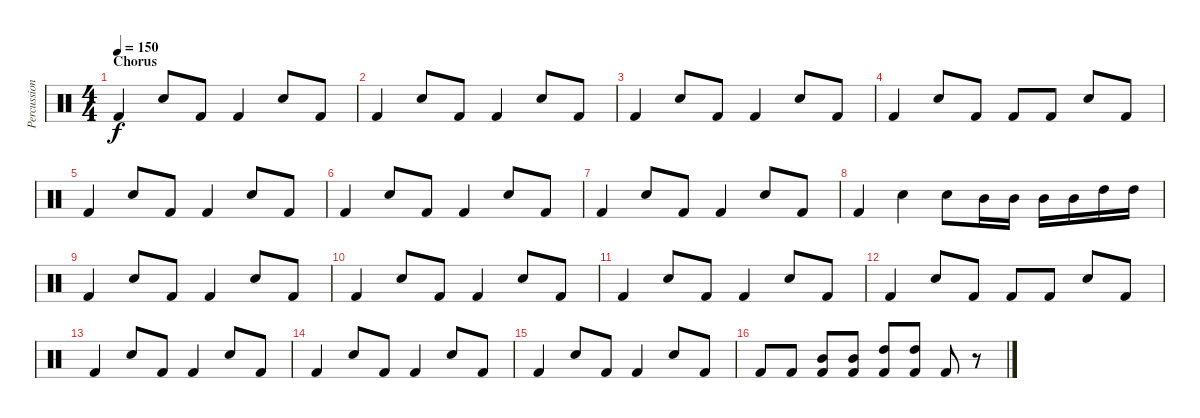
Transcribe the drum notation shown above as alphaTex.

\track ("Percussion" "Percussion") {instrument percussion}
\staff {score}
\articulation defaults
\ts (4 4)
\section ("" "Chorus")
\tempo 150
\clef neutral
\ks c "Kick (hit) 2".4{dy f} "Snare (hit) 2".8 "Kick (hit) 2".8 "Kick (hit) 2".4 "Snare (hit) 2".8 "Kick (hit) 2".8
|
"Kick (hit) 2".4 "Snare (hit) 2".8 "Kick (hit) 2".8 "Kick (hit) 2".4 "Snare (hit) 2".8 "Kick (hit) 2".8 |
"Kick (hit) 2".4 "Snare (hit) 2".8 "Kick (hit) 2".8 "Kick (hit) 2".4 "Snare (hit) 2".8 "Kick (hit) 2".8 |
"Kick (hit) 2".4 "Snare (hit) 2".8 "Kick (hit) 2".8 "Kick (hit) 2".8 "Kick (hit) 2".8 "Snare (hit) 2".8 "Kick (hit) 2".8 |
"Kick (hit) 2".4 "Snare (hit) 2".8 "Kick (hit) 2".8 "Kick (hit) 2".4 "Snare (hit) 2".8 "Kick (hit) 2".8 |
"Kick (hit) 2".4 "Snare (hit) 2".8 "Kick (hit) 2".8 "Kick (hit) 2".4 "Snare (hit) 2".8 "Kick (hit) 2".8 |
"Kick (hit) 2".4 "Snare (hit) 2".8 "Kick (hit) 2".8 "Kick (hit) 2".4 "Snare (hit) 2".8 "Kick (hit) 2".8 |
"Kick (hit) 2".4 "Snare (hit) 2".4 "Snare (hit) 2".8 "Mid Tom (hit)".16 "Mid Tom (hit)".16 "Mid Tom (hit)".16 "Mid Tom (hit)".16 "High Tom (hit)".16 "High Tom (hit)".16 |
"Kick (hit) 2".4 "Snare (hit) 2".8 "Kick (hit) 2".8 "Kick (hit) 2".4 "Snare (hit) 2".8 "Kick (hit) 2".8 |
"Kick (hit) 2".4 "Snare (hit) 2".8 "Kick (hit) 2".8 "Kick (hit) 2".4 "Snare (hit) 2".8 "Kick (hit) 2".8 |
"Kick (hit) 2".4 "Snare (hit) 2".8 "Kick (hit) 2".8 "Kick (hit) 2".4 "Snare (hit) 2".8 "Kick (hit) 2".8 |
"Kick (hit) 2".4 "Snare (hit) 2".8 "Kick (hit) 2".8 "Kick (hit) 2".8 "Kick (hit) 2".8 "Snare (hit) 2".8 "Kick (hit) 2".8 |
"Kick (hit) 2".4 "Snare (hit) 2".8 "Kick (hit) 2".8 "Kick (hit) 2".4 "Snare (hit) 2".8 "Kick (hit) 2".8 |
"Kick (hit) 2".4 "Snare (hit) 2".8 "Kick (hit) 2".8 "Kick (hit) 2".4 "Snare (hit) 2".8 "Kick (hit) 2".8 |
"Kick (hit) 2".4 "Snare (hit) 2".8 "Kick (hit) 2".8 "Kick (hit) 2".4 "Snare (hit) 2".8 "Kick (hit) 2".8 |
"Kick (hit) 2".8 "Kick (hit) 2".8 ("Mid Tom (hit)" "Kick (hit) 2").8 ("Mid Tom (hit)" "Kick (hit) 2").8 ("High Tom (hit)" "Kick (hit) 2").8 ("High Tom (hit)" "Kick (hit) 2").8 "Kick (hit) 2".8 r.8
